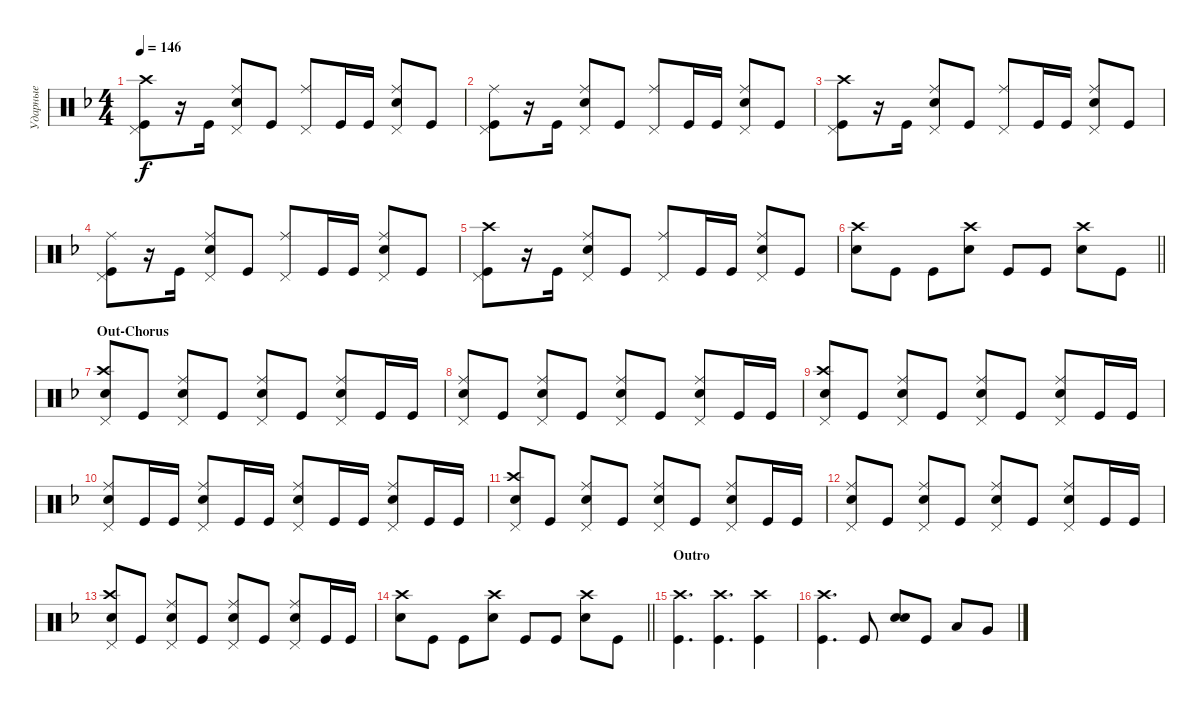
\track ("Ударные" "Ударные") {instrument percussion}
\staff {score}
\articulation defaults
\ts (4 4)
\tempo 146
\clef neutral
\ks dminor
("Kick (hit)" "Pedal Hi-Hat (hit)" "Crash high (hit)").8{dy f} r.16 "Kick (hit)".16 ("Ride (middle)" "Snare (hit) 2" "Pedal Hi-Hat (hit)").8 "Kick (hit)".8 ("Pedal Hi-Hat (hit)" "Ride (middle)").8 "Kick (hit)".16 "Kick (hit)".16 ("Snare (hit) 2" "Pedal Hi-Hat (hit)" "Ride (middle)").8 "Kick (hit)".8 |
("Kick (hit)" "Pedal Hi-Hat (hit)" "Ride (middle)").8 r.16 "Kick (hit)".16 ("Ride (middle)" "Snare (hit) 2" "Pedal Hi-Hat (hit)").8 "Kick (hit)".8 ("Pedal Hi-Hat (hit)" "Ride (middle)").8 "Kick (hit)".16 "Kick (hit)".16 ("Snare (hit) 2" "Pedal Hi-Hat (hit)" "Ride (middle)").8 "Kick (hit)".8 |
("Kick (hit)" "Pedal Hi-Hat (hit)" "Crash high (hit)").8 r.16 "Kick (hit)".16 ("Ride (middle)" "Snare (hit) 2" "Pedal Hi-Hat (hit)").8 "Kick (hit)".8 ("Pedal Hi-Hat (hit)" "Ride (middle)").8 "Kick (hit)".16 "Kick (hit)".16 ("Snare (hit) 2" "Pedal Hi-Hat (hit)" "Ride (middle)").8 "Kick (hit)".8 |
("Kick (hit)" "Pedal Hi-Hat (hit)" "Ride (middle)").8 r.16 "Kick (hit)".16 ("Ride (middle)" "Snare (hit) 2" "Pedal Hi-Hat (hit)").8 "Kick (hit)".8 ("Pedal Hi-Hat (hit)" "Ride (middle)").8 "Kick (hit)".16 "Kick (hit)".16 ("Snare (hit) 2" "Pedal Hi-Hat (hit)" "Ride (middle)").8 "Kick (hit)".8 |
("Kick (hit)" "Pedal Hi-Hat (hit)" "Crash high (hit)").8 r.16 "Kick (hit)".16 ("Ride (middle)" "Snare (hit) 2" "Pedal Hi-Hat (hit)").8 "Kick (hit)".8 ("Pedal Hi-Hat (hit)" "Ride (middle)").8 "Kick (hit)".16 "Kick (hit)".16 ("Snare (hit) 2" "Pedal Hi-Hat (hit)" "Ride (middle)").8 "Kick (hit)".8 |
\barLineRight lightlight
("Snare (hit) 2" "Crash high (hit)").8 "Kick (hit)".8 "Kick (hit)".8 ("Snare (hit) 2" "Crash high (hit)").8 "Kick (hit)".8 "Kick (hit)".8 ("Snare (hit) 2" "Crash high (hit)").8 "Kick (hit)".8 |
\section ("" "Out-Chorus")
("Snare (hit) 2" "Pedal Hi-Hat (hit)" "Crash high (hit)").8 "Kick (hit)".8 ("Snare (hit) 2" "Ride (middle)" "Pedal Hi-Hat (hit)").8 "Kick (hit)".8 ("Snare (hit) 2" "Ride (middle)" "Pedal Hi-Hat (hit)").8 "Kick (hit)".8 ("Snare (hit) 2" "Ride (middle)" "Pedal Hi-Hat (hit)").8 "Kick (hit)".16 "Kick (hit)".16 |
("Snare (hit) 2" "Ride (middle)" "Pedal Hi-Hat (hit)").8 "Kick (hit)".8 ("Snare (hit) 2" "Ride (middle)" "Pedal Hi-Hat (hit)").8 "Kick (hit)".8 ("Snare (hit) 2" "Ride (middle)" "Pedal Hi-Hat (hit)").8 "Kick (hit)".8 ("Snare (hit) 2" "Ride (middle)" "Pedal Hi-Hat (hit)").8 "Kick (hit)".16 "Kick (hit)".16 |
("Snare (hit) 2" "Pedal Hi-Hat (hit)" "Crash high (hit)").8 "Kick (hit)".8 ("Snare (hit) 2" "Ride (middle)" "Pedal Hi-Hat (hit)").8 "Kick (hit)".8 ("Snare (hit) 2" "Ride (middle)" "Pedal Hi-Hat (hit)").8 "Kick (hit)".8 ("Snare (hit) 2" "Ride (middle)" "Pedal Hi-Hat (hit)").8 "Kick (hit)".16 "Kick (hit)".16 |
("Snare (hit) 2" "Ride (middle)" "Pedal Hi-Hat (hit)").8 "Kick (hit)".16 "Kick (hit)".16 ("Snare (hit) 2" "Ride (middle)" "Pedal Hi-Hat (hit)").8 "Kick (hit)".16 "Kick (hit)".16 ("Snare (hit) 2" "Ride (middle)" "Pedal Hi-Hat (hit)").8 "Kick (hit)".16 "Kick (hit)".16 ("Snare (hit) 2" "Ride (middle)" "Pedal Hi-Hat (hit)").8 "Kick (hit)".16 "Kick (hit)".16 |
("Snare (hit) 2" "Pedal Hi-Hat (hit)" "Crash high (hit)").8 "Kick (hit)".8 ("Snare (hit) 2" "Ride (middle)" "Pedal Hi-Hat (hit)").8 "Kick (hit)".8 ("Snare (hit) 2" "Ride (middle)" "Pedal Hi-Hat (hit)").8 "Kick (hit)".8 ("Snare (hit) 2" "Ride (middle)" "Pedal Hi-Hat (hit)").8 "Kick (hit)".16 "Kick (hit)".16 |
("Snare (hit) 2" "Ride (middle)" "Pedal Hi-Hat (hit)").8 "Kick (hit)".8 ("Snare (hit) 2" "Ride (middle)" "Pedal Hi-Hat (hit)").8 "Kick (hit)".8 ("Snare (hit) 2" "Ride (middle)" "Pedal Hi-Hat (hit)").8 "Kick (hit)".8 ("Snare (hit) 2" "Ride (middle)" "Pedal Hi-Hat (hit)").8 "Kick (hit)".16 "Kick (hit)".16 |
("Snare (hit) 2" "Pedal Hi-Hat (hit)" "Crash high (hit)").8 "Kick (hit)".8 ("Snare (hit) 2" "Ride (middle)" "Pedal Hi-Hat (hit)").8 "Kick (hit)".8 ("Snare (hit) 2" "Ride (middle)" "Pedal Hi-Hat (hit)").8 "Kick (hit)".8 ("Snare (hit) 2" "Ride (middle)" "Pedal Hi-Hat (hit)").8 "Kick (hit)".16 "Kick (hit)".16 |
\barLineRight lightlight
("Snare (hit) 2" "Crash high (hit)").8 "Kick (hit)".8 "Kick (hit)".8 ("Snare (hit) 2" "Crash high (hit)").8 "Kick (hit)".8 "Kick (hit)".8 ("Snare (hit) 2" "Crash high (hit)").8 "Kick (hit)".8 |
\section ("" "Outro")
("Kick (hit)" "Crash high (hit)").4{d} ("Kick (hit)" "Crash high (hit)").4{d} ("Kick (hit)" "Crash high (hit)").4 |
("Kick (hit)" "Crash high (hit)").4{d} "Kick (hit)".8 ("Snare (hit) 2" "Snare (hit) 2").8{bd 240} "Kick (hit)".8 "Low Tom (hit)".8 "Very Low Tom (hit)".8
